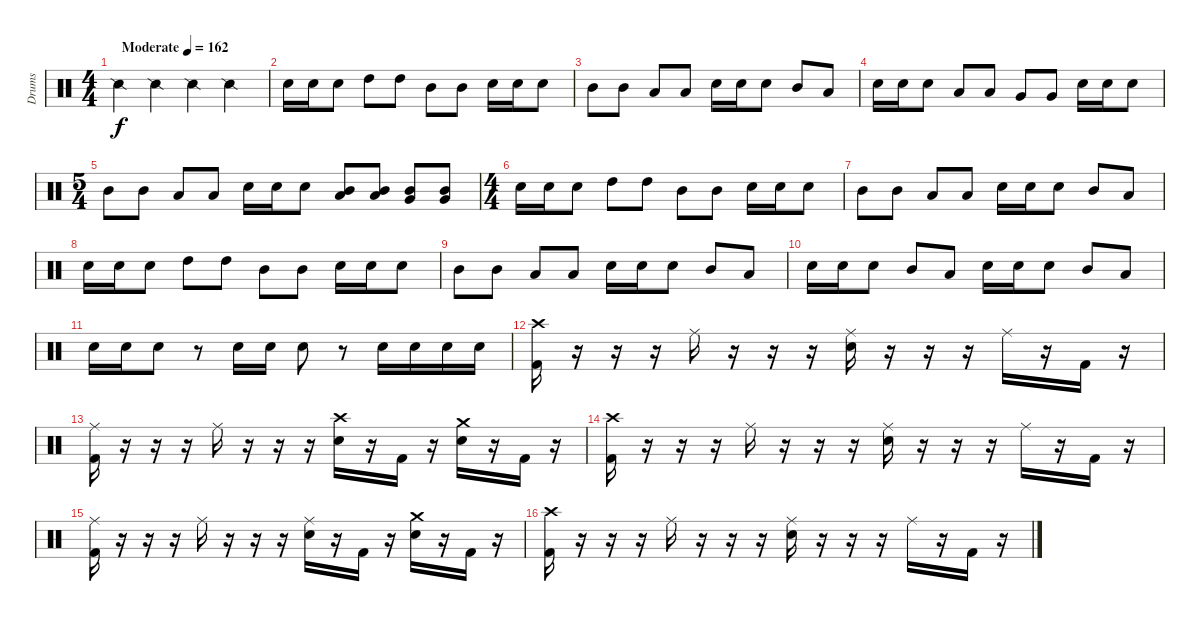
\track ("Drums" "Drums") {instrument percussion}
\staff {score}
\articulation defaults
\ts (4 4)
\tempo (162 "Moderate")
\clef neutral
\ks c "Snare (side stick) 2".4{dy f} "Snare (side stick) 2".4 "Snare (side stick) 2".4 "Snare (side stick) 2".4
|
"Snare (hit) 2".16 "Snare (hit) 2".16 "Snare (hit) 2".8 "High Tom (hit)".8 "High Tom (hit)".8 "Mid Tom (hit)".8 "Mid Tom (hit)".8 "Snare (hit) 2".16 "Snare (hit) 2".16 "Snare (hit) 2".8 |
"Mid Tom (hit)".8 "Mid Tom (hit)".8 "Low Tom (hit)".8 "Low Tom (hit)".8 "Snare (hit) 2".16 "Snare (hit) 2".16 "Snare (hit) 2".8 "Mid Tom (hit)".8 "Low Tom (hit)".8 |
"Snare (hit) 2".16 "Snare (hit) 2".16 "Snare (hit) 2".8 "Low Tom (hit)".8 "Low Tom (hit)".8 "Very Low Tom (hit)".8 "Very Low Tom (hit)".8 "Snare (hit) 2".16 "Snare (hit) 2".16 "Snare (hit) 2".8 |
\ts (5 4)
"Mid Tom (hit)".8 "Mid Tom (hit)".8 "Low Tom (hit)".8 "Low Tom (hit)".8 "Snare (hit) 2".16 "Snare (hit) 2".16 "Snare (hit) 2".8 ("Mid Tom (hit)" "Low Tom (hit)").8 ("Mid Tom (hit)" "Low Tom (hit)").8 ("Very Low Tom (hit)" "Mid Tom (hit)").8 ("Very Low Tom (hit)" "Mid Tom (hit)").8 |
\ts (4 4)
"Snare (hit) 2".16 "Snare (hit) 2".16 "Snare (hit) 2".8 "High Tom (hit)".8 "High Tom (hit)".8 "Mid Tom (hit)".8 "Mid Tom (hit)".8 "Snare (hit) 2".16 "Snare (hit) 2".16 "Snare (hit) 2".8 |
"Mid Tom (hit)".8 "Mid Tom (hit)".8 "Low Tom (hit)".8 "Low Tom (hit)".8 "Snare (hit) 2".16 "Snare (hit) 2".16 "Snare (hit) 2".8 "Mid Tom (hit)".8 "Low Tom (hit)".8 |
"Snare (hit) 2".16 "Snare (hit) 2".16 "Snare (hit) 2".8 "High Tom (hit)".8 "High Tom (hit)".8 "Mid Tom (hit)".8 "Mid Tom (hit)".8 "Snare (hit) 2".16 "Snare (hit) 2".16 "Snare (hit) 2".8 |
"Mid Tom (hit)".8 "Mid Tom (hit)".8 "Low Tom (hit)".8 "Low Tom (hit)".8 "Snare (hit) 2".16 "Snare (hit) 2".16 "Snare (hit) 2".8 "Mid Tom (hit)".8 "Low Tom (hit)".8 |
"Snare (hit) 2".16 "Snare (hit) 2".16 "Snare (hit) 2".8 "Mid Tom (hit)".8 "Low Tom (hit)".8 "Snare (hit) 2".16 "Snare (hit) 2".16 "Snare (hit) 2".8 "Mid Tom (hit)".8 "Low Tom (hit)".8 |
"Snare (hit) 2".16 "Snare (hit) 2".16 "Snare (hit) 2".8 r.8 "Snare (hit) 2".16 "Snare (hit) 2".16 "Snare (hit) 2".8 r.8 "Snare (hit) 2".16 "Snare (hit) 2".16 "Snare (hit) 2".16 "Snare (hit) 2".16 |
("Crash high (hit)" "Kick (hit) 2").16 r.16 r.16 r.16 "Ride (middle)".16 r.16 r.16 r.16 ("Ride (middle)" "Snare (hit) 2").16 r.16 r.16 r.16 "Ride (middle)".16 r.16 "Kick (hit) 2".16 r.16 |
("Ride (middle)" "Kick (hit) 2").16 r.16 r.16 r.16 "Ride (middle)".16 r.16 r.16 r.16 ("Crash high (hit)" "Snare (hit) 2").16 r.16 "Kick (hit) 2".16 r.16 ("Crash medium (hit)" "Snare (hit) 2").16 r.16 "Kick (hit) 2".16 r.16 |
("Crash high (hit)" "Kick (hit) 2").16 r.16 r.16 r.16 "Ride (middle)".16 r.16 r.16 r.16 ("Ride (middle)" "Snare (hit) 2").16 r.16 r.16 r.16 "Ride (middle)".16 r.16 "Kick (hit) 2".16 r.16 |
("Ride (middle)" "Kick (hit) 2").16 r.16 r.16 r.16 "Ride (middle)".16 r.16 r.16 r.16 ("Ride (middle)" "Snare (hit) 2").16 r.16 "Kick (hit) 2".16 r.16 ("Crash medium (hit)" "Snare (hit) 2").16 r.16 "Kick (hit) 2".16 r.16 |
("Crash high (hit)" "Kick (hit) 2").16 r.16 r.16 r.16 "Ride (middle)".16 r.16 r.16 r.16 ("Ride (middle)" "Snare (hit) 2").16 r.16 r.16 r.16 "Ride (middle)".16 r.16 "Kick (hit) 2".16 r.16
